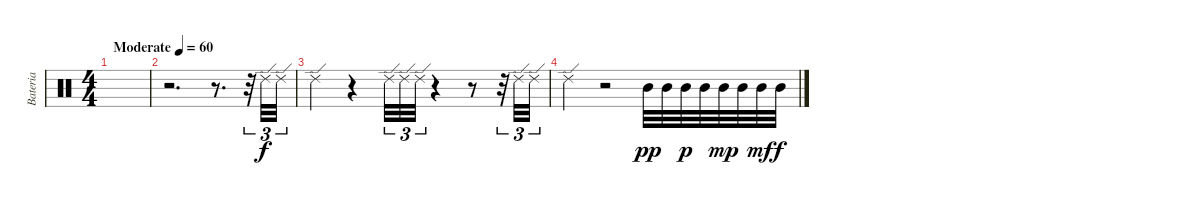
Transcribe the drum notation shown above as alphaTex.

\track ("Bateria" "Bateria") {instrument percussion}
\staff {score}
\articulation defaults
\ts (4 4)
\tempo (60 "Moderate")
\clef neutral
\ks c
|
r.2{d} r.8{d} r.32{tu (3 2)} "Ride (edge) 2".32{tu (3 2)} "Ride (edge) 2".32{tu (3 2)} |
"Ride (edge) 2".4 r.4 "Ride (edge) 2".32{tu (3 2)} "Ride (edge) 2".32{tu (3 2)} "Ride (edge) 2".32{tu (3 2)} r.4 r.8 r.32{tu (3 2)} "Ride (edge) 2".32{tu (3 2)} "Ride (edge) 2".32{tu (3 2)} |
"Ride (edge) 2".4 r.2 "Mid Tom (hit)".32{dy pp} "Mid Tom (hit)".32 "Mid Tom (hit)".32{dy p} "Mid Tom (hit)".32 "Mid Tom (hit)".32{dy mp} "Mid Tom (hit)".32 "Mid Tom (hit)".32{dy mf} "Mid Tom (hit)".32{dy f}
